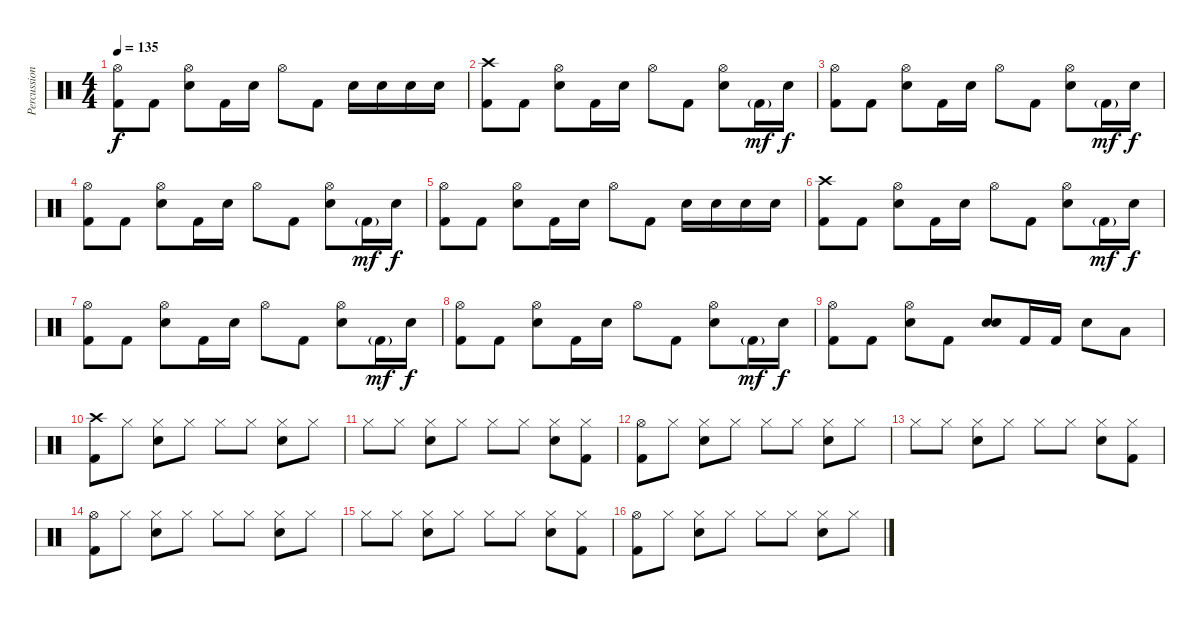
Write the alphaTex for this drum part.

\track ("Percussions" "Percussion") {instrument percussion}
\staff {score}
\articulation defaults
\ts (4 4)
\tempo 135
\clef neutral
\ks c
("Hi-Hat (open)" "Kick (hit) 2").8{dy f} "Kick (hit) 2".8 ("Hi-Hat (open)" "Snare (hit) 2").8 "Kick (hit) 2".16 "Snare (hit) 2".16 "Hi-Hat (open)".8 "Kick (hit) 2".8 "Snare (hit) 2".16 "Snare (hit) 2".16 "Snare (hit) 2".16 "Snare (hit) 2".16 |
("Crash high (hit)" "Kick (hit) 2").8 "Kick (hit) 2".8 ("Hi-Hat (open)" "Snare (hit) 2").8 "Kick (hit) 2".16 "Snare (hit) 2".16 "Hi-Hat (open)".8 "Kick (hit) 2".8 ("Hi-Hat (open)" "Snare (hit) 2").8 "Kick (hit) 2"{g}.16{dy mf} "Snare (hit) 2".16{dy f} |
("Hi-Hat (open)" "Kick (hit) 2").8 "Kick (hit) 2".8 ("Hi-Hat (open)" "Snare (hit) 2").8 "Kick (hit) 2".16 "Snare (hit) 2".16 "Hi-Hat (open)".8 "Kick (hit) 2".8 ("Hi-Hat (open)" "Snare (hit) 2").8 "Kick (hit) 2"{g}.16{dy mf} "Snare (hit) 2".16{dy f} |
("Hi-Hat (open)" "Kick (hit) 2").8 "Kick (hit) 2".8 ("Hi-Hat (open)" "Snare (hit) 2").8 "Kick (hit) 2".16 "Snare (hit) 2".16 "Hi-Hat (open)".8 "Kick (hit) 2".8 ("Hi-Hat (open)" "Snare (hit) 2").8 "Kick (hit) 2"{g}.16{dy mf} "Snare (hit) 2".16{dy f} |
("Hi-Hat (open)" "Kick (hit) 2").8 "Kick (hit) 2".8 ("Hi-Hat (open)" "Snare (hit) 2").8 "Kick (hit) 2".16 "Snare (hit) 2".16 "Hi-Hat (open)".8 "Kick (hit) 2".8 "Snare (hit) 2".16 "Snare (hit) 2".16 "Snare (hit) 2".16 "Snare (hit) 2".16 |
("Crash high (hit)" "Kick (hit) 2").8 "Kick (hit) 2".8 ("Hi-Hat (open)" "Snare (hit) 2").8 "Kick (hit) 2".16 "Snare (hit) 2".16 "Hi-Hat (open)".8 "Kick (hit) 2".8 ("Hi-Hat (open)" "Snare (hit) 2").8 "Kick (hit) 2"{g}.16{dy mf} "Snare (hit) 2".16{dy f} |
("Hi-Hat (open)" "Kick (hit) 2").8 "Kick (hit) 2".8 ("Hi-Hat (open)" "Snare (hit) 2").8 "Kick (hit) 2".16 "Snare (hit) 2".16 "Hi-Hat (open)".8 "Kick (hit) 2".8 ("Hi-Hat (open)" "Snare (hit) 2").8 "Kick (hit) 2"{g}.16{dy mf} "Snare (hit) 2".16{dy f} |
("Hi-Hat (open)" "Kick (hit) 2").8 "Kick (hit) 2".8 ("Hi-Hat (open)" "Snare (hit) 2").8 "Kick (hit) 2".16 "Snare (hit) 2".16 "Hi-Hat (open)".8 "Kick (hit) 2".8 ("Hi-Hat (open)" "Snare (hit) 2").8 "Kick (hit) 2"{g}.16{dy mf} "Snare (hit) 2".16{dy f} |
("Hi-Hat (open)" "Kick (hit) 2").8 "Kick (hit) 2".8 ("Hi-Hat (open)" "Snare (hit) 2").8 "Kick (hit) 2".8 ("Snare (hit) 2" "Snare (hit) 2").8{bd 240} "Kick (hit) 2".16 "Kick (hit) 2".16 "Snare (hit) 2".8 "Low Tom (hit)".8 |
("Crash high (hit)" "Kick (hit) 2").8 "Hi-Hat (closed)".8 ("Hi-Hat (closed)" "Snare (hit) 2").8 "Hi-Hat (closed)".8 "Hi-Hat (closed)".8 "Hi-Hat (closed)".8 ("Hi-Hat (closed)" "Snare (hit) 2").8 "Hi-Hat (closed)".8 |
"Hi-Hat (closed)".8 "Hi-Hat (closed)".8 ("Hi-Hat (closed)" "Snare (hit) 2").8 "Hi-Hat (closed)".8 "Hi-Hat (closed)".8 "Hi-Hat (closed)".8 ("Hi-Hat (closed)" "Snare (hit) 2").8 ("Hi-Hat (closed)" "Kick (hit) 2").8 |
("Hi-Hat (open)" "Kick (hit) 2").8 "Hi-Hat (closed)".8 ("Hi-Hat (closed)" "Snare (hit) 2").8 "Hi-Hat (closed)".8 "Hi-Hat (closed)".8 "Hi-Hat (closed)".8 ("Hi-Hat (closed)" "Snare (hit) 2").8 "Hi-Hat (closed)".8 |
"Hi-Hat (closed)".8 "Hi-Hat (closed)".8 ("Hi-Hat (closed)" "Snare (hit) 2").8 "Hi-Hat (closed)".8 "Hi-Hat (closed)".8 "Hi-Hat (closed)".8 ("Hi-Hat (closed)" "Snare (hit) 2").8 ("Hi-Hat (closed)" "Kick (hit) 2").8 |
("Hi-Hat (open)" "Kick (hit) 2").8 "Hi-Hat (closed)".8 ("Hi-Hat (closed)" "Snare (hit) 2").8 "Hi-Hat (closed)".8 "Hi-Hat (closed)".8 "Hi-Hat (closed)".8 ("Hi-Hat (closed)" "Snare (hit) 2").8 "Hi-Hat (closed)".8 |
"Hi-Hat (closed)".8 "Hi-Hat (closed)".8 ("Hi-Hat (closed)" "Snare (hit) 2").8 "Hi-Hat (closed)".8 "Hi-Hat (closed)".8 "Hi-Hat (closed)".8 ("Hi-Hat (closed)" "Snare (hit) 2").8 ("Hi-Hat (closed)" "Kick (hit) 2").8 |
("Hi-Hat (open)" "Kick (hit) 2").8 "Hi-Hat (closed)".8 ("Hi-Hat (closed)" "Snare (hit) 2").8 "Hi-Hat (closed)".8 "Hi-Hat (closed)".8 "Hi-Hat (closed)".8 ("Hi-Hat (closed)" "Snare (hit) 2").8 "Hi-Hat (closed)".8
